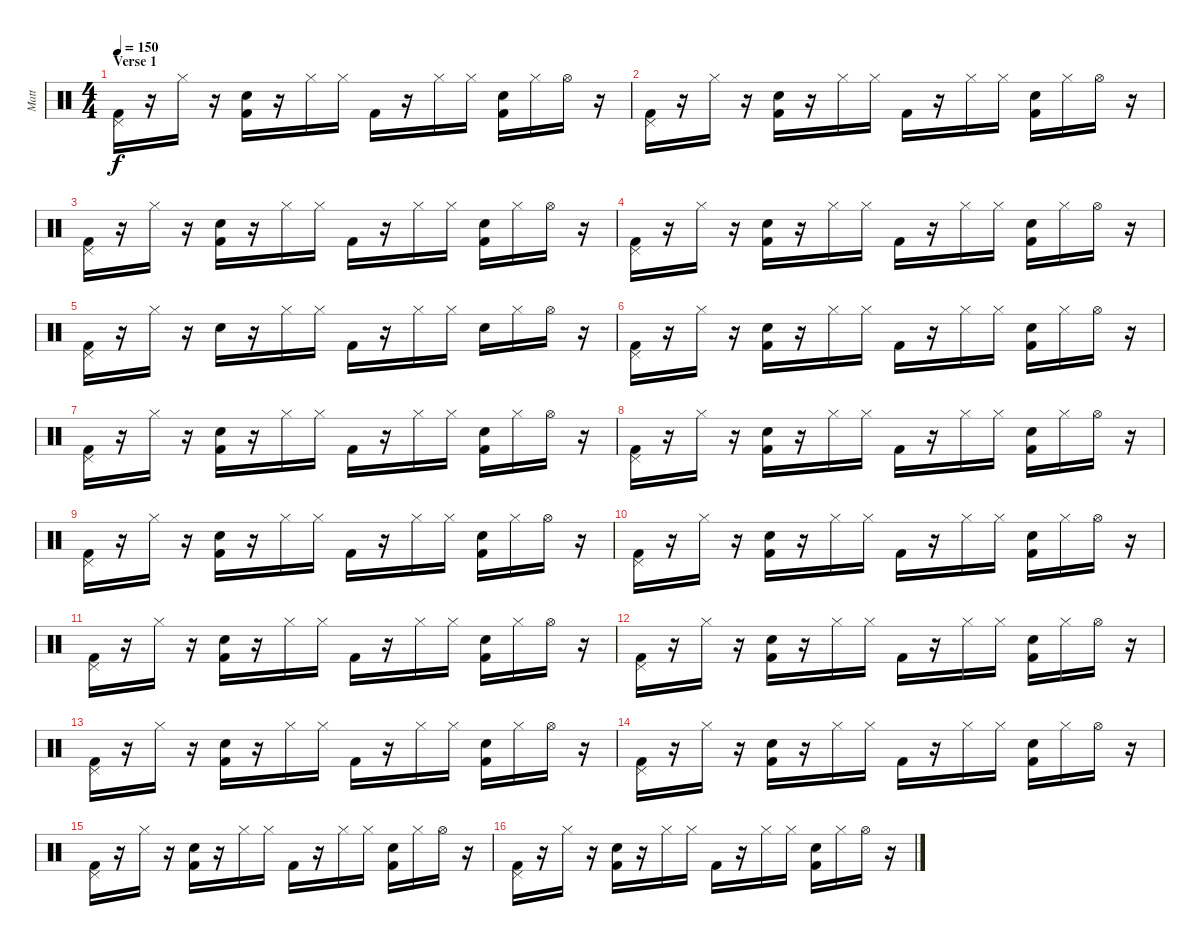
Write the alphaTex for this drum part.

\track ("Matt" "Matt") {instrument percussion}
\staff {score}
\articulation defaults
\ts (4 4)
\section ("" "Verse 1")
\tempo 150
\clef neutral
\ks c
("Pedal Hi-Hat (hit)" "Kick (hit) 2").16{dy f} r.16 "Hi-Hat (closed)".16 r.16 ("Snare (hit) 2" "Kick (hit) 2").16 r.16 "Hi-Hat (closed)".16 "Hi-Hat (closed)".16 "Kick (hit) 2".16 r.16 "Hi-Hat (closed)".16 "Hi-Hat (closed)".16 ("Snare (hit) 2" "Kick (hit) 2").16 "Hi-Hat (closed)".16 "Hi-Hat (open)".16 r.16 |
("Pedal Hi-Hat (hit)" "Kick (hit) 2").16 r.16 "Hi-Hat (closed)".16 r.16 ("Snare (hit) 2" "Kick (hit) 2").16 r.16 "Hi-Hat (closed)".16 "Hi-Hat (closed)".16 "Kick (hit) 2".16 r.16 "Hi-Hat (closed)".16 "Hi-Hat (closed)".16 ("Snare (hit) 2" "Kick (hit) 2").16 "Hi-Hat (closed)".16 "Hi-Hat (open)".16 r.16 |
("Pedal Hi-Hat (hit)" "Kick (hit) 2").16 r.16 "Hi-Hat (closed)".16 r.16 ("Snare (hit) 2" "Kick (hit) 2").16 r.16 "Hi-Hat (closed)".16 "Hi-Hat (closed)".16 "Kick (hit) 2".16 r.16 "Hi-Hat (closed)".16 "Hi-Hat (closed)".16 ("Snare (hit) 2" "Kick (hit) 2").16 "Hi-Hat (closed)".16 "Hi-Hat (open)".16 r.16 |
("Pedal Hi-Hat (hit)" "Kick (hit) 2").16 r.16 "Hi-Hat (closed)".16 r.16 ("Snare (hit) 2" "Kick (hit) 2").16 r.16 "Hi-Hat (closed)".16 "Hi-Hat (closed)".16 "Kick (hit) 2".16 r.16 "Hi-Hat (closed)".16 "Hi-Hat (closed)".16 ("Snare (hit) 2" "Kick (hit) 2").16 "Hi-Hat (closed)".16 "Hi-Hat (open)".16 r.16 |
("Pedal Hi-Hat (hit)" "Kick (hit) 2").16 r.16 "Hi-Hat (closed)".16 r.16 "Snare (hit) 2".16 r.16 "Hi-Hat (closed)".16 "Hi-Hat (closed)".16 "Kick (hit) 2".16 r.16 "Hi-Hat (closed)".16 "Hi-Hat (closed)".16 "Snare (hit) 2".16 "Hi-Hat (closed)".16 "Hi-Hat (open)".16 r.16 |
("Pedal Hi-Hat (hit)" "Kick (hit) 2").16 r.16 "Hi-Hat (closed)".16 r.16 ("Snare (hit) 2" "Kick (hit) 2").16 r.16 "Hi-Hat (closed)".16 "Hi-Hat (closed)".16 "Kick (hit) 2".16 r.16 "Hi-Hat (closed)".16 "Hi-Hat (closed)".16 ("Snare (hit) 2" "Kick (hit) 2").16 "Hi-Hat (closed)".16 "Hi-Hat (open)".16 r.16 |
("Pedal Hi-Hat (hit)" "Kick (hit) 2").16 r.16 "Hi-Hat (closed)".16 r.16 ("Snare (hit) 2" "Kick (hit) 2").16 r.16 "Hi-Hat (closed)".16 "Hi-Hat (closed)".16 "Kick (hit) 2".16 r.16 "Hi-Hat (closed)".16 "Hi-Hat (closed)".16 ("Snare (hit) 2" "Kick (hit) 2").16 "Hi-Hat (closed)".16 "Hi-Hat (open)".16 r.16 |
("Pedal Hi-Hat (hit)" "Kick (hit) 2").16 r.16 "Hi-Hat (closed)".16 r.16 ("Snare (hit) 2" "Kick (hit) 2").16 r.16 "Hi-Hat (closed)".16 "Hi-Hat (closed)".16 "Kick (hit) 2".16 r.16 "Hi-Hat (closed)".16 "Hi-Hat (closed)".16 ("Snare (hit) 2" "Kick (hit) 2").16 "Hi-Hat (closed)".16 "Hi-Hat (open)".16 r.16 |
("Pedal Hi-Hat (hit)" "Kick (hit) 2").16 r.16 "Hi-Hat (closed)".16 r.16 ("Snare (hit) 2" "Kick (hit) 2").16 r.16 "Hi-Hat (closed)".16 "Hi-Hat (closed)".16 "Kick (hit) 2".16 r.16 "Hi-Hat (closed)".16 "Hi-Hat (closed)".16 ("Snare (hit) 2" "Kick (hit) 2").16 "Hi-Hat (closed)".16 "Hi-Hat (open)".16 r.16 |
("Pedal Hi-Hat (hit)" "Kick (hit) 2").16 r.16 "Hi-Hat (closed)".16 r.16 ("Snare (hit) 2" "Kick (hit) 2").16 r.16 "Hi-Hat (closed)".16 "Hi-Hat (closed)".16 "Kick (hit) 2".16 r.16 "Hi-Hat (closed)".16 "Hi-Hat (closed)".16 ("Snare (hit) 2" "Kick (hit) 2").16 "Hi-Hat (closed)".16 "Hi-Hat (open)".16 r.16 |
("Pedal Hi-Hat (hit)" "Kick (hit) 2").16 r.16 "Hi-Hat (closed)".16 r.16 ("Snare (hit) 2" "Kick (hit) 2").16 r.16 "Hi-Hat (closed)".16 "Hi-Hat (closed)".16 "Kick (hit) 2".16 r.16 "Hi-Hat (closed)".16 "Hi-Hat (closed)".16 ("Snare (hit) 2" "Kick (hit) 2").16 "Hi-Hat (closed)".16 "Hi-Hat (open)".16 r.16 |
("Pedal Hi-Hat (hit)" "Kick (hit) 2").16 r.16 "Hi-Hat (closed)".16 r.16 ("Snare (hit) 2" "Kick (hit) 2").16 r.16 "Hi-Hat (closed)".16 "Hi-Hat (closed)".16 "Kick (hit) 2".16 r.16 "Hi-Hat (closed)".16 "Hi-Hat (closed)".16 ("Snare (hit) 2" "Kick (hit) 2").16 "Hi-Hat (closed)".16 "Hi-Hat (open)".16 r.16 |
("Pedal Hi-Hat (hit)" "Kick (hit) 2").16 r.16 "Hi-Hat (closed)".16 r.16 ("Snare (hit) 2" "Kick (hit) 2").16 r.16 "Hi-Hat (closed)".16 "Hi-Hat (closed)".16 "Kick (hit) 2".16 r.16 "Hi-Hat (closed)".16 "Hi-Hat (closed)".16 ("Snare (hit) 2" "Kick (hit) 2").16 "Hi-Hat (closed)".16 "Hi-Hat (open)".16 r.16 |
("Pedal Hi-Hat (hit)" "Kick (hit) 2").16 r.16 "Hi-Hat (closed)".16 r.16 ("Snare (hit) 2" "Kick (hit) 2").16 r.16 "Hi-Hat (closed)".16 "Hi-Hat (closed)".16 "Kick (hit) 2".16 r.16 "Hi-Hat (closed)".16 "Hi-Hat (closed)".16 ("Snare (hit) 2" "Kick (hit) 2").16 "Hi-Hat (closed)".16 "Hi-Hat (open)".16 r.16 |
("Pedal Hi-Hat (hit)" "Kick (hit) 2").16 r.16 "Hi-Hat (closed)".16 r.16 ("Snare (hit) 2" "Kick (hit) 2").16 r.16 "Hi-Hat (closed)".16 "Hi-Hat (closed)".16 "Kick (hit) 2".16 r.16 "Hi-Hat (closed)".16 "Hi-Hat (closed)".16 ("Snare (hit) 2" "Kick (hit) 2").16 "Hi-Hat (closed)".16 "Hi-Hat (open)".16 r.16 |
("Pedal Hi-Hat (hit)" "Kick (hit) 2").16 r.16 "Hi-Hat (closed)".16 r.16 ("Snare (hit) 2" "Kick (hit) 2").16 r.16 "Hi-Hat (closed)".16 "Hi-Hat (closed)".16 "Kick (hit) 2".16 r.16 "Hi-Hat (closed)".16 "Hi-Hat (closed)".16 ("Snare (hit) 2" "Kick (hit) 2").16 "Hi-Hat (closed)".16 "Hi-Hat (open)".16 r.16
